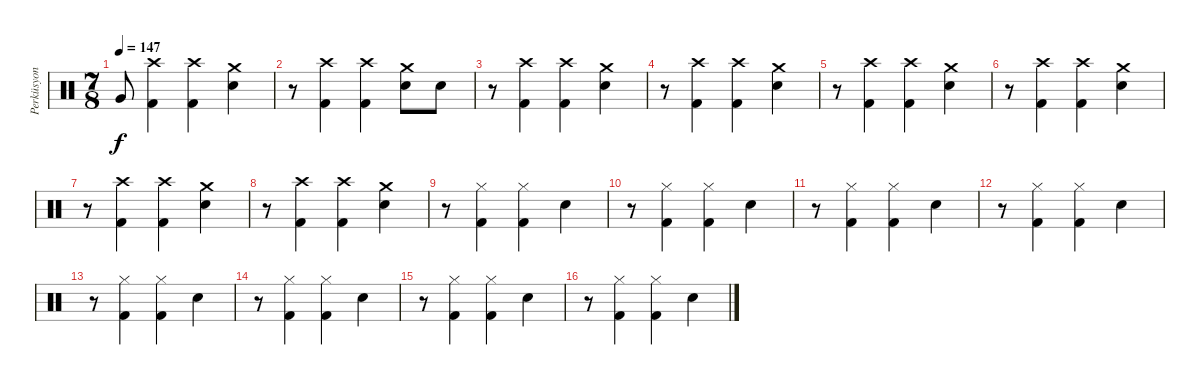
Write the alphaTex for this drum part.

\track ("Perküsyon" "Perküsyon") {instrument percussion}
\staff {score}
\articulation defaults
\ts (7 8)
\tempo 147
\clef neutral
\ks c "Very Low Tom (hit)".8{dy f}
("Crash high (hit)" "Kick (hit) 2").4 ("Crash high (hit)" "Kick (hit) 2").4 ("Crash medium (hit)" "Electric Snare (hit)").4 |
r.8 ("Crash high (hit)" "Kick (hit) 2").4 ("Crash high (hit)" "Kick (hit) 2").4 ("Crash medium (hit)" "Electric Snare (hit)").8 "Electric Snare (hit)".8 |
r.8 ("Crash high (hit)" "Kick (hit) 2").4 ("Crash high (hit)" "Kick (hit) 2").4 ("Crash medium (hit)" "Electric Snare (hit)").4 |
r.8 ("Crash high (hit)" "Kick (hit) 2").4 ("Crash high (hit)" "Kick (hit) 2").4 ("Crash medium (hit)" "Electric Snare (hit)").4 |
r.8 ("Crash high (hit)" "Kick (hit) 2").4 ("Crash high (hit)" "Kick (hit) 2").4 ("Crash medium (hit)" "Electric Snare (hit)").4 |
r.8 ("Crash high (hit)" "Kick (hit) 2").4 ("Crash high (hit)" "Kick (hit) 2").4 ("Crash medium (hit)" "Electric Snare (hit)").4 |
r.8 ("Crash high (hit)" "Kick (hit) 2").4 ("Crash high (hit)" "Kick (hit) 2").4 ("Crash medium (hit)" "Electric Snare (hit)").4 |
r.8 ("Crash high (hit)" "Kick (hit) 2").4 ("Crash high (hit)" "Kick (hit) 2").4 ("Crash medium (hit)" "Electric Snare (hit)").4 |
r.8 ("Hi-Hat (closed)" "Kick (hit) 2").4 ("Hi-Hat (closed)" "Kick (hit) 2").4 "Electric Snare (hit)".4 |
r.8 ("Hi-Hat (closed)" "Kick (hit) 2").4 ("Hi-Hat (closed)" "Kick (hit) 2").4 "Electric Snare (hit)".4 |
r.8 ("Hi-Hat (closed)" "Kick (hit) 2").4 ("Hi-Hat (closed)" "Kick (hit) 2").4 "Electric Snare (hit)".4 |
r.8 ("Hi-Hat (closed)" "Kick (hit) 2").4 ("Hi-Hat (closed)" "Kick (hit) 2").4 "Electric Snare (hit)".4 |
r.8 ("Hi-Hat (closed)" "Kick (hit) 2").4 ("Hi-Hat (closed)" "Kick (hit) 2").4 "Electric Snare (hit)".4 |
r.8 ("Hi-Hat (closed)" "Kick (hit) 2").4 ("Hi-Hat (closed)" "Kick (hit) 2").4 "Electric Snare (hit)".4 |
r.8 ("Hi-Hat (closed)" "Kick (hit) 2").4 ("Hi-Hat (closed)" "Kick (hit) 2").4 "Electric Snare (hit)".4 |
r.8 ("Hi-Hat (closed)" "Kick (hit) 2").4 ("Hi-Hat (closed)" "Kick (hit) 2").4 "Electric Snare (hit)".4
